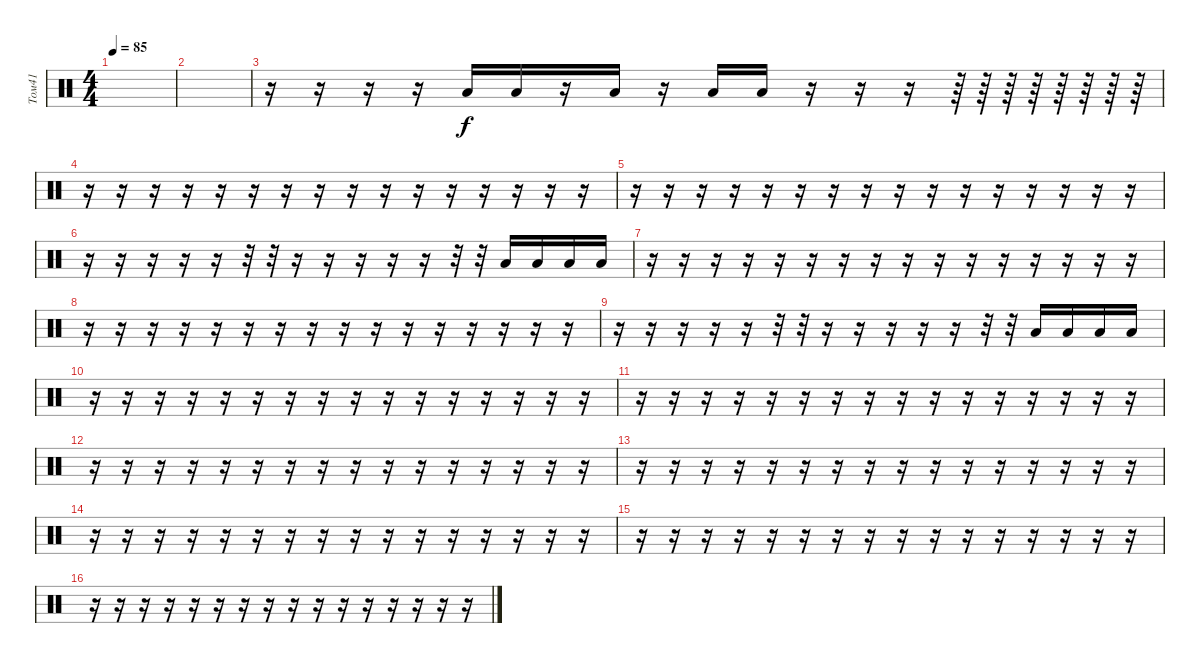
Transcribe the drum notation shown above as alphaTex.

\track ("Том41" "Том41") {instrument percussion}
\staff {score}
\articulation defaults
\ts (4 4)
\tempo 85
\clef neutral
\ks c
|
|
r.16 r.16 r.16 r.16 "Low Floor Tom (hit)".16 "Low Floor Tom (hit)".16 r.16 "Low Floor Tom (hit)".16 r.16 "Low Floor Tom (hit)".16 "Low Floor Tom (hit)".16 r.16 r.16 r.16 r.64 r.64 r.64 r.64 r.64 r.64 r.64 r.64 |
r.16 r.16 r.16 r.16 r.16 r.16 r.16 r.16 r.16 r.16 r.16 r.16 r.16 r.16 r.16 r.16 |
r.16 r.16 r.16 r.16 r.16 r.16 r.16 r.16 r.16 r.16 r.16 r.16 r.16 r.16 r.16 r.16 |
r.16 r.16 r.16 r.16 r.16 r.32 r.32 r.16 r.16 r.16 r.16 r.16 r.32 r.32 "Low Floor Tom (hit)".16 "Low Floor Tom (hit)".16 "Low Floor Tom (hit)".16 "Low Floor Tom (hit)".16 |
r.16 r.16 r.16 r.16 r.16 r.16 r.16 r.16 r.16 r.16 r.16 r.16 r.16 r.16 r.16 r.16 |
r.16 r.16 r.16 r.16 r.16 r.16 r.16 r.16 r.16 r.16 r.16 r.16 r.16 r.16 r.16 r.16 |
r.16 r.16 r.16 r.16 r.16 r.32 r.32 r.16 r.16 r.16 r.16 r.16 r.32 r.32 "Low Floor Tom (hit)".16 "Low Floor Tom (hit)".16 "Low Floor Tom (hit)".16 "Low Floor Tom (hit)".16 |
r.16 r.16 r.16 r.16 r.16 r.16 r.16 r.16 r.16 r.16 r.16 r.16 r.16 r.16 r.16 r.16 |
r.16 r.16 r.16 r.16 r.16 r.16 r.16 r.16 r.16 r.16 r.16 r.16 r.16 r.16 r.16 r.16 |
r.16 r.16 r.16 r.16 r.16 r.16 r.16 r.16 r.16 r.16 r.16 r.16 r.16 r.16 r.16 r.16 |
r.16 r.16 r.16 r.16 r.16 r.16 r.16 r.16 r.16 r.16 r.16 r.16 r.16 r.16 r.16 r.16 |
r.16 r.16 r.16 r.16 r.16 r.16 r.16 r.16 r.16 r.16 r.16 r.16 r.16 r.16 r.16 r.16 |
r.16 r.16 r.16 r.16 r.16 r.16 r.16 r.16 r.16 r.16 r.16 r.16 r.16 r.16 r.16 r.16 |
r.16 r.16 r.16 r.16 r.16 r.16 r.16 r.16 r.16 r.16 r.16 r.16 r.16 r.16 r.16 r.16
